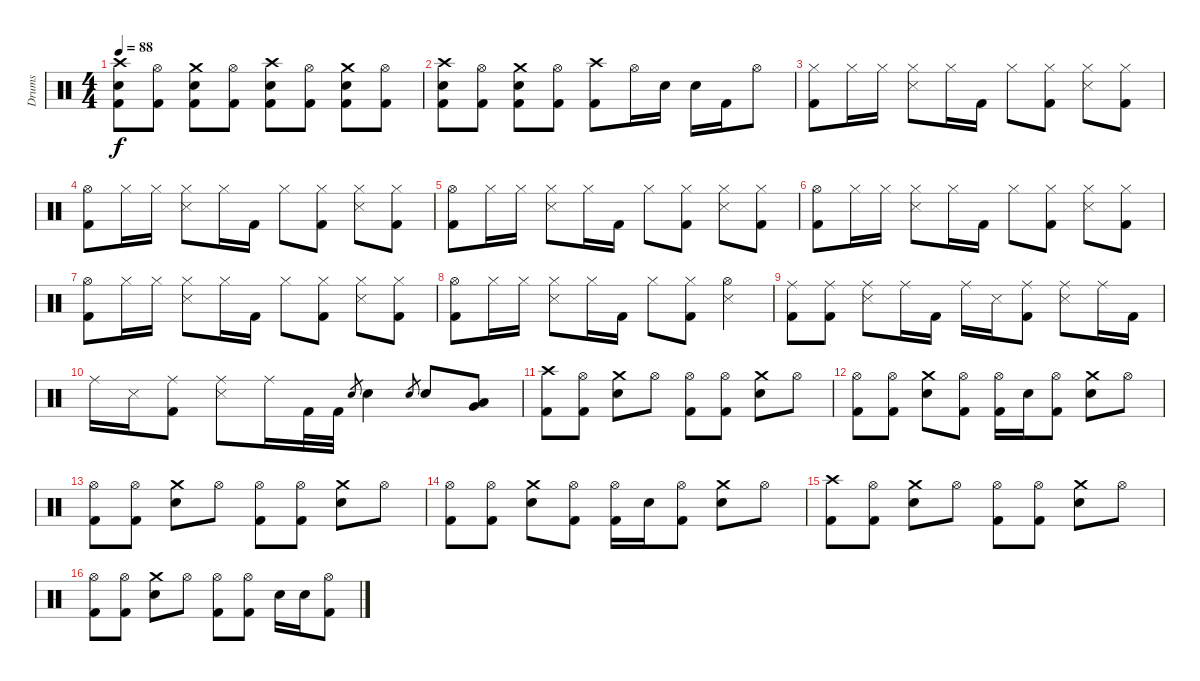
\track ("Drums" "Drums") {instrument percussion}
\staff {score}
\articulation defaults
\ts (4 4)
\tempo 88
\clef neutral
\ks c
("Crash high (hit)" "Snare (hit) 2" "Kick (hit) 2").8{dy f} ("Hi-Hat (open)" "Kick (hit) 2").8 ("Crash medium (hit)" "Snare (hit) 2" "Kick (hit) 2").8 ("Hi-Hat (open)" "Kick (hit) 2").8 ("Crash high (hit)" "Snare (hit) 2" "Kick (hit) 2").8 ("Hi-Hat (open)" "Kick (hit) 2").8 ("Crash medium (hit)" "Snare (hit) 2" "Kick (hit) 2").8 ("Hi-Hat (open)" "Kick (hit) 2").8 |
("Crash high (hit)" "Snare (hit) 2" "Kick (hit) 2").8 ("Hi-Hat (open)" "Kick (hit) 2").8 ("Crash medium (hit)" "Snare (hit) 2" "Kick (hit) 2").8 ("Hi-Hat (open)" "Kick (hit) 2").8 ("Crash high (hit)" "Kick (hit) 2").8 "Hi-Hat (open)".16 "Snare (hit) 2".16 "Snare (hit) 2".16 "Kick (hit) 2".16 "Hi-Hat (open)".8 |
("Hi-Hat (closed)" "Kick (hit) 2").8 "Hi-Hat (closed)".16 "Hi-Hat (closed)".16 ("Hi-Hat (closed)" "Snare (side stick) 3").8 "Hi-Hat (closed)".16 "Kick (hit) 2".16 "Hi-Hat (closed)".8 ("Hi-Hat (closed)" "Kick (hit) 2").8 ("Hi-Hat (closed)" "Snare (side stick) 3").8 ("Hi-Hat (closed)" "Kick (hit) 2").8 |
("Hi-Hat (open)" "Kick (hit) 2").8 "Hi-Hat (closed)".16 "Hi-Hat (closed)".16 ("Hi-Hat (closed)" "Snare (side stick) 3").8 "Hi-Hat (closed)".16 "Kick (hit) 2".16 "Hi-Hat (closed)".8 ("Hi-Hat (closed)" "Kick (hit) 2").8 ("Hi-Hat (closed)" "Snare (side stick) 3").8 ("Hi-Hat (closed)" "Kick (hit) 2").8 |
("Hi-Hat (open)" "Kick (hit) 2").8 "Hi-Hat (closed)".16 "Hi-Hat (closed)".16 ("Hi-Hat (closed)" "Snare (side stick) 3").8 "Hi-Hat (closed)".16 "Kick (hit) 2".16 "Hi-Hat (closed)".8 ("Hi-Hat (closed)" "Kick (hit) 2").8 ("Hi-Hat (closed)" "Snare (side stick) 3").8 ("Hi-Hat (closed)" "Kick (hit) 2").8 |
("Hi-Hat (open)" "Kick (hit) 2").8 "Hi-Hat (closed)".16 "Hi-Hat (closed)".16 ("Hi-Hat (closed)" "Snare (side stick) 3").8 "Hi-Hat (closed)".16 "Kick (hit) 2".16 "Hi-Hat (closed)".8 ("Hi-Hat (closed)" "Kick (hit) 2").8 ("Hi-Hat (closed)" "Snare (side stick) 3").8 ("Hi-Hat (closed)" "Kick (hit) 2").8 |
("Hi-Hat (open)" "Kick (hit) 2").8 "Hi-Hat (closed)".16 "Hi-Hat (closed)".16 ("Hi-Hat (closed)" "Snare (side stick) 3").8 "Hi-Hat (closed)".16 "Kick (hit) 2".16 "Hi-Hat (closed)".8 ("Hi-Hat (closed)" "Kick (hit) 2").8 ("Hi-Hat (closed)" "Snare (side stick) 3").8 ("Hi-Hat (closed)" "Kick (hit) 2").8 |
("Hi-Hat (open)" "Kick (hit) 2").8 "Hi-Hat (closed)".16 "Hi-Hat (closed)".16 ("Hi-Hat (closed)" "Snare (side stick) 3").8 "Hi-Hat (closed)".16 "Kick (hit) 2".16 "Hi-Hat (closed)".8 ("Hi-Hat (closed)" "Kick (hit) 2").8 ("Hi-Hat (open)" "Snare (side stick) 3").4 |
("Ride (middle)" "Kick (hit) 2").8 ("Ride (middle)" "Kick (hit) 2").8 ("Ride (middle)" "Snare (side stick) 3").8 "Ride (middle)".16 "Kick (hit) 2".16 "Ride (middle)".16 "Snare (side stick) 3".16 ("Ride (middle)" "Kick (hit) 2").8 ("Ride (middle)" "Snare (side stick) 3").8 "Ride (middle)".16 "Kick (hit) 2".16 |
"Ride (middle)".16 "Snare (side stick) 3".16 ("Ride (middle)" "Kick (hit) 2").8 ("Ride (middle)" "Snare (side stick) 3").8 "Ride (middle)".16 "Kick (hit) 2".32 "Kick (hit) 2".32 "Snare (hit) 2".8{gr} "Snare (hit) 2".4 "Snare (hit) 2".8{gr} "Snare (hit) 2".8 ("Low Tom (hit)" "Very Low Tom (hit)").8 |
("Crash high (hit)" "Kick (hit) 2").8 ("Hi-Hat (open)" "Kick (hit) 2").8 ("Crash medium (hit)" "Snare (hit) 2").8 "Hi-Hat (open)".8 ("Hi-Hat (open)" "Kick (hit) 2").8 ("Hi-Hat (open)" "Kick (hit) 2").8 ("Crash medium (hit)" "Snare (hit) 2").8 "Hi-Hat (open)".8 |
("Hi-Hat (open)" "Kick (hit) 2").8 ("Hi-Hat (open)" "Kick (hit) 2").8 ("Crash medium (hit)" "Snare (hit) 2").8 ("Hi-Hat (open)" "Kick (hit) 2").8 ("Hi-Hat (open)" "Kick (hit) 2").16 "Snare (hit) 2".16 ("Hi-Hat (open)" "Kick (hit) 2").8 ("Crash medium (hit)" "Snare (hit) 2").8 "Hi-Hat (open)".8 |
("Hi-Hat (open)" "Kick (hit) 2").8 ("Hi-Hat (open)" "Kick (hit) 2").8 ("Crash medium (hit)" "Snare (hit) 2").8 "Hi-Hat (open)".8 ("Hi-Hat (open)" "Kick (hit) 2").8 ("Hi-Hat (open)" "Kick (hit) 2").8 ("Crash medium (hit)" "Snare (hit) 2").8 "Hi-Hat (open)".8 |
("Hi-Hat (open)" "Kick (hit) 2").8 ("Hi-Hat (open)" "Kick (hit) 2").8 ("Crash medium (hit)" "Snare (hit) 2").8 ("Hi-Hat (open)" "Kick (hit) 2").8 ("Hi-Hat (open)" "Kick (hit) 2").16 "Snare (hit) 2".16 ("Hi-Hat (open)" "Kick (hit) 2").8 ("Crash medium (hit)" "Snare (hit) 2").8 "Hi-Hat (open)".8 |
("Crash high (hit)" "Kick (hit) 2").8 ("Hi-Hat (open)" "Kick (hit) 2").8 ("Crash medium (hit)" "Snare (hit) 2").8 "Hi-Hat (open)".8 ("Hi-Hat (open)" "Kick (hit) 2").8 ("Hi-Hat (open)" "Kick (hit) 2").8 ("Crash medium (hit)" "Snare (hit) 2").8 "Hi-Hat (open)".8 |
("Hi-Hat (open)" "Kick (hit) 2").8 ("Hi-Hat (open)" "Kick (hit) 2").8 ("Crash medium (hit)" "Snare (hit) 2").8 "Hi-Hat (open)".8 ("Hi-Hat (open)" "Kick (hit) 2").8 ("Hi-Hat (open)" "Kick (hit) 2").8 "Snare (hit) 2".16 "Snare (hit) 2".16 ("Hi-Hat (open)" "Kick (hit) 2").8
